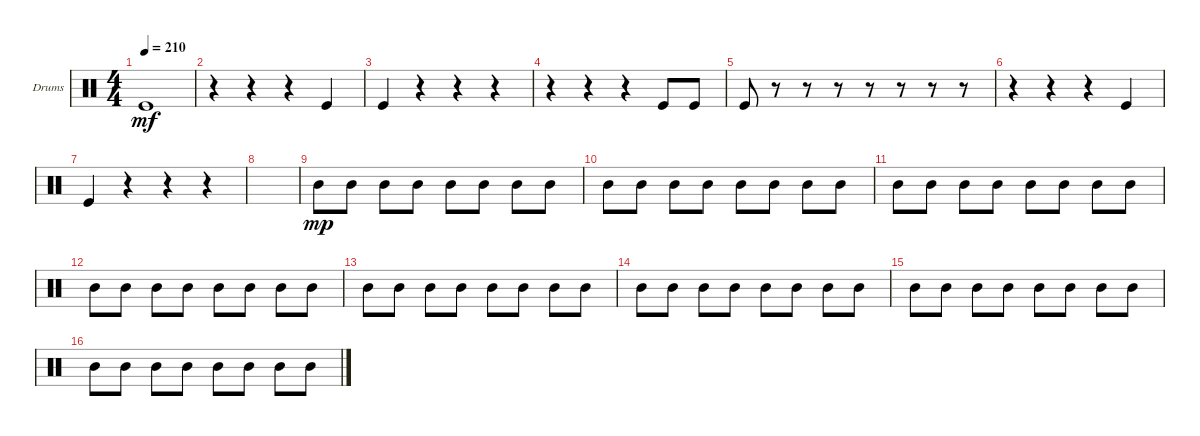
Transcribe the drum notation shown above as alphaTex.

\bracketExtendMode groupsimilarinstruments
\firstSystemTrackNameOrientation horizontal
\otherSystemsTrackNameOrientation horizontal
\track ("Drumkit" "Drums") {instrument percussion}
\staff {score}
\articulation defaults
\ts (4 4)
\tempo 210
\clef neutral
\ks c "Kick (hit)".1{dy mf}
|
r.4 r.4 r.4 "Kick (hit)".4 |
"Kick (hit)".4 r.4 r.4 r.4 |
r.4 r.4 r.4 "Kick (hit)".8 "Kick (hit)".8 |
"Kick (hit)".8 r.8 r.8 r.8 r.8 r.8 r.8 r.8 |
r.4 r.4 r.4 "Kick (hit)".4 |
"Kick (hit)".4 r.4 r.4 r.4 |
|
"Mid Tom (hit)".8{dy mp} "Mid Tom (hit)".8 "Mid Tom (hit)".8 "Mid Tom (hit)".8 "Mid Tom (hit)".8 "Mid Tom (hit)".8 "Mid Tom (hit)".8 "Mid Tom (hit)".8 |
"Mid Tom (hit)".8 "Mid Tom (hit)".8 "Mid Tom (hit)".8 "Mid Tom (hit)".8 "Mid Tom (hit)".8 "Mid Tom (hit)".8 "Mid Tom (hit)".8 "Mid Tom (hit)".8 |
"Mid Tom (hit)".8 "Mid Tom (hit)".8 "Mid Tom (hit)".8 "Mid Tom (hit)".8 "Mid Tom (hit)".8 "Mid Tom (hit)".8 "Mid Tom (hit)".8 "Mid Tom (hit)".8 |
"Mid Tom (hit)".8 "Mid Tom (hit)".8 "Mid Tom (hit)".8 "Mid Tom (hit)".8 "Mid Tom (hit)".8 "Mid Tom (hit)".8 "Mid Tom (hit)".8 "Mid Tom (hit)".8 |
"Mid Tom (hit)".8 "Mid Tom (hit)".8 "Mid Tom (hit)".8 "Mid Tom (hit)".8 "Mid Tom (hit)".8 "Mid Tom (hit)".8 "Mid Tom (hit)".8 "Mid Tom (hit)".8 |
"Mid Tom (hit)".8 "Mid Tom (hit)".8 "Mid Tom (hit)".8 "Mid Tom (hit)".8 "Mid Tom (hit)".8 "Mid Tom (hit)".8 "Mid Tom (hit)".8 "Mid Tom (hit)".8 |
"Mid Tom (hit)".8 "Mid Tom (hit)".8 "Mid Tom (hit)".8 "Mid Tom (hit)".8 "Mid Tom (hit)".8 "Mid Tom (hit)".8 "Mid Tom (hit)".8 "Mid Tom (hit)".8 |
"Mid Tom (hit)".8 "Mid Tom (hit)".8 "Mid Tom (hit)".8 "Mid Tom (hit)".8 "Mid Tom (hit)".8 "Mid Tom (hit)".8 "Mid Tom (hit)".8 "Mid Tom (hit)".8
